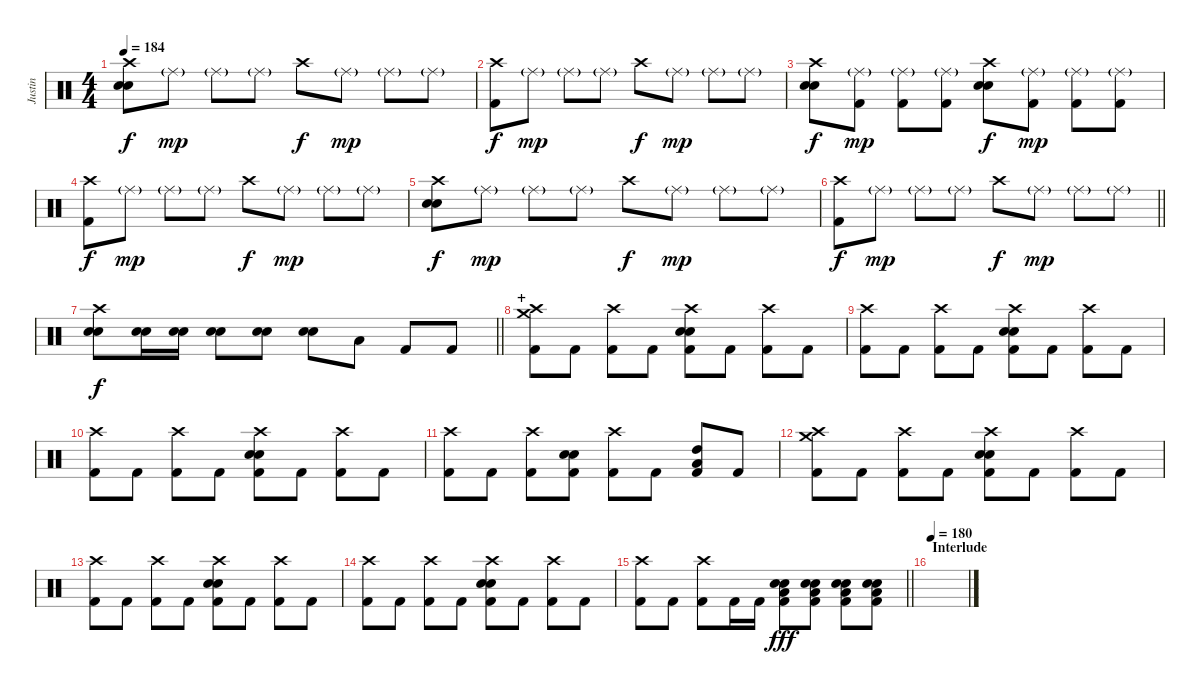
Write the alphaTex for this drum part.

\track ("Justin" "Justin") {instrument percussion}
\staff {score}
\articulation defaults
\ts (4 4)
\tempo 184
\clef neutral
\ks c
("Crash high (hit)" "Electric Snare (hit)" "Snare (hit) 2").8{dy f} "Ride (middle)"{g}.8{dy mp} "Ride (middle)"{g}.8 "Ride (middle)"{g}.8 "Crash high (hit)".8{dy f} "Ride (middle)"{g}.8{dy mp} "Ride (middle)"{g}.8 "Ride (middle)"{g}.8 |
("Crash high (hit)" "Kick (hit) 2").8{dy f} "Ride (middle)"{g}.8{dy mp} "Ride (middle)"{g}.8 "Ride (middle)"{g}.8 "Crash high (hit)".8{dy f} "Ride (middle)"{g}.8{dy mp} "Ride (middle)"{g}.8 "Ride (middle)"{g}.8 |
("Crash high (hit)" "Electric Snare (hit)" "Snare (hit) 2").8{dy f} ("Ride (middle)"{g} "Kick (hit) 2").8{dy mp} ("Ride (middle)"{g} "Kick (hit) 2").8 ("Ride (middle)"{g} "Kick (hit) 2").8 ("Crash high (hit)" "Electric Snare (hit)" "Snare (hit) 2").8{dy f} ("Ride (middle)"{g} "Kick (hit) 2").8{dy mp} ("Ride (middle)"{g} "Kick (hit) 2").8 ("Ride (middle)"{g} "Kick (hit) 2").8 |
("Crash high (hit)" "Kick (hit) 2").8{dy f} "Ride (middle)"{g}.8{dy mp} "Ride (middle)"{g}.8 "Ride (middle)"{g}.8 "Crash high (hit)".8{dy f} "Ride (middle)"{g}.8{dy mp} "Ride (middle)"{g}.8 "Ride (middle)"{g}.8 |
("Crash high (hit)" "Electric Snare (hit)" "Snare (hit) 2").8{dy f} "Ride (middle)"{g}.8{dy mp} "Ride (middle)"{g}.8 "Ride (middle)"{g}.8 "Crash high (hit)".8{dy f} "Ride (middle)"{g}.8{dy mp} "Ride (middle)"{g}.8 "Ride (middle)"{g}.8 |
\barLineRight lightlight
("Crash high (hit)" "Kick (hit) 2").8{dy f} "Ride (middle)"{g}.8{dy mp} "Ride (middle)"{g}.8 "Ride (middle)"{g}.8 "Crash high (hit)".8{dy f} "Ride (middle)"{g}.8{dy mp} "Ride (middle)"{g}.8 "Ride (middle)"{g}.8 |
\barLineRight lightlight
("Crash high (hit)" "Electric Snare (hit)" "Snare (hit) 2").8{dy f} ("Electric Snare (hit)" "Snare (hit) 2").16 ("Electric Snare (hit)" "Snare (hit) 2").16 ("Electric Snare (hit)" "Snare (hit) 2").8 ("Electric Snare (hit)" "Snare (hit) 2").8 ("Electric Snare (hit)" "Snare (hit) 2").8 "Low Tom (hit)".8 "Kick (hit) 2".8 "Kick (hit) 2".8 |
\section ("" "+")
("Crash medium (hit)" "Crash high (hit)" "Kick (hit) 2").8 "Kick (hit) 2".8 ("Crash high (hit)" "Kick (hit) 2").8 "Kick (hit) 2".8 ("Crash high (hit)" "Electric Snare (hit)" "Snare (hit) 2" "Kick (hit) 2").8 "Kick (hit) 2".8 ("Crash high (hit)" "Kick (hit) 2").8 "Kick (hit) 2".8 |
("Crash high (hit)" "Kick (hit) 2").8 "Kick (hit) 2".8 ("Crash high (hit)" "Kick (hit) 2").8 "Kick (hit) 2".8 ("Crash high (hit)" "Electric Snare (hit)" "Snare (hit) 2" "Kick (hit) 2").8 "Kick (hit) 2".8 ("Crash high (hit)" "Kick (hit) 2").8 "Kick (hit) 2".8 |
("Crash high (hit)" "Kick (hit) 2").8 "Kick (hit) 2".8 ("Crash high (hit)" "Kick (hit) 2").8 "Kick (hit) 2".8 ("Crash high (hit)" "Electric Snare (hit)" "Snare (hit) 2" "Kick (hit) 2").8 "Kick (hit) 2".8 ("Crash high (hit)" "Kick (hit) 2").8 "Kick (hit) 2".8 |
("Crash high (hit)" "Kick (hit) 2").8 "Kick (hit) 2".8 ("Crash high (hit)" "Kick (hit) 2").8 ("Electric Snare (hit)" "Snare (hit) 2" "Kick (hit) 2").8 ("Crash high (hit)" "Kick (hit) 2").8 "Kick (hit) 2".8 ("High Tom (hit)" "Low Tom (hit)" "Kick (hit) 2").8 "Kick (hit) 2".8 |
("Crash medium (hit)" "Crash high (hit)" "Kick (hit) 2").8 "Kick (hit) 2".8 ("Crash high (hit)" "Kick (hit) 2").8 "Kick (hit) 2".8 ("Crash high (hit)" "Electric Snare (hit)" "Snare (hit) 2" "Kick (hit) 2").8 "Kick (hit) 2".8 ("Crash high (hit)" "Kick (hit) 2").8 "Kick (hit) 2".8 |
("Crash high (hit)" "Kick (hit) 2").8 "Kick (hit) 2".8 ("Crash high (hit)" "Kick (hit) 2").8 "Kick (hit) 2".8 ("Crash high (hit)" "Electric Snare (hit)" "Snare (hit) 2" "Kick (hit) 2").8 "Kick (hit) 2".8 ("Crash high (hit)" "Kick (hit) 2").8 "Kick (hit) 2".8 |
("Crash high (hit)" "Kick (hit) 2").8 "Kick (hit) 2".8 ("Crash high (hit)" "Kick (hit) 2").8 "Kick (hit) 2".8 ("Crash high (hit)" "Electric Snare (hit)" "Snare (hit) 2" "Kick (hit) 2").8 "Kick (hit) 2".8 ("Crash high (hit)" "Kick (hit) 2").8 "Kick (hit) 2".8 |
\barLineRight lightlight
("Crash high (hit)" "Kick (hit) 2").8 "Kick (hit) 2".8 ("Crash high (hit)" "Kick (hit) 2").8 "Kick (hit) 2".16 "Kick (hit) 2".16 ("Electric Snare (hit)" "Snare (hit) 2" "Low Floor Tom (hit)" "Kick (hit) 2").8{dy fff} ("Electric Snare (hit)" "Snare (hit) 2" "Low Floor Tom (hit)" "Kick (hit) 2").8 ("Electric Snare (hit)" "Snare (hit) 2" "Low Floor Tom (hit)" "Kick (hit) 2").8 ("Electric Snare (hit)" "Snare (hit) 2" "Low Floor Tom (hit)" "Kick (hit) 2").8 |
\section ("" "Interlude")
\tempo 180
